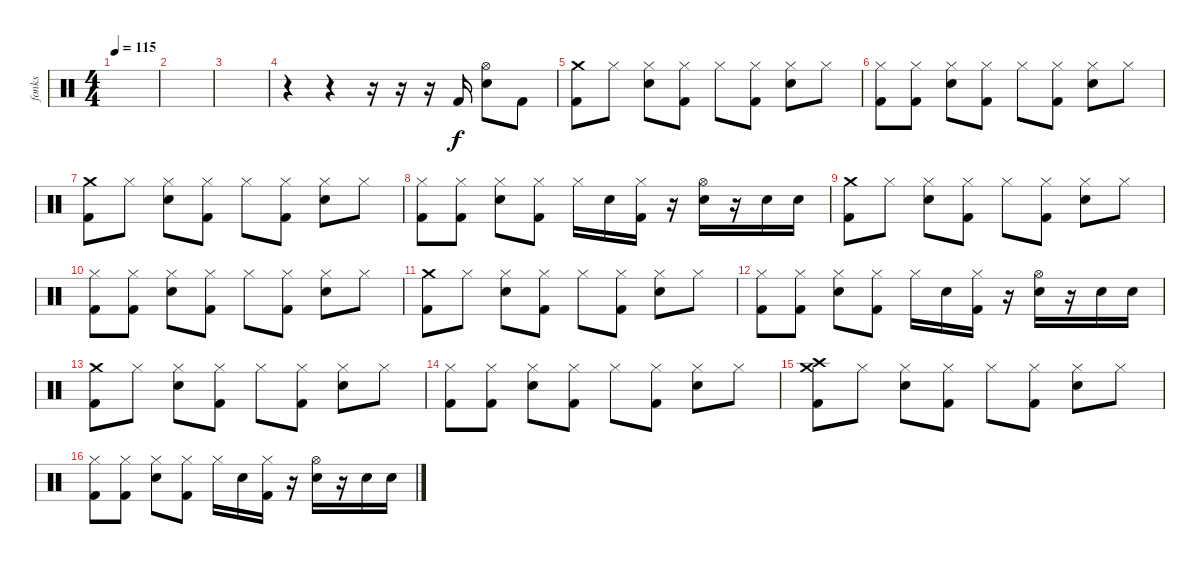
\track ("fonks" "fonks") {instrument percussion}
\staff {score}
\articulation defaults
\ts (4 4)
\tempo 115
\clef neutral
\ks c
|
|
|
r.4 r.4 r.16 r.16 r.16 "Kick (hit) 2".16 ("Hi-Hat (open)" "Snare (hit) 2").8 "Kick (hit) 2".8 |
("Crash medium (hit)" "Kick (hit) 2").8 "Hi-Hat (closed)".8 ("Hi-Hat (closed)" "Snare (hit) 2").8 ("Hi-Hat (closed)" "Kick (hit) 2").8 "Hi-Hat (closed)".8 ("Hi-Hat (closed)" "Kick (hit) 2").8 ("Hi-Hat (closed)" "Snare (hit) 2").8 "Hi-Hat (closed)".8 |
("Hi-Hat (closed)" "Kick (hit) 2").8 ("Hi-Hat (closed)" "Kick (hit) 2").8 ("Hi-Hat (closed)" "Snare (hit) 2").8 ("Hi-Hat (closed)" "Kick (hit) 2").8 "Hi-Hat (closed)".8 ("Hi-Hat (closed)" "Kick (hit) 2").8 ("Hi-Hat (closed)" "Snare (hit) 2").8 "Hi-Hat (closed)".8 |
("Crash medium (hit)" "Kick (hit) 2").8 "Hi-Hat (closed)".8 ("Hi-Hat (closed)" "Snare (hit) 2").8 ("Hi-Hat (closed)" "Kick (hit) 2").8 "Hi-Hat (closed)".8 ("Hi-Hat (closed)" "Kick (hit) 2").8 ("Hi-Hat (closed)" "Snare (hit) 2").8 "Hi-Hat (closed)".8 |
("Hi-Hat (closed)" "Kick (hit) 2").8 ("Hi-Hat (closed)" "Kick (hit) 2").8 ("Hi-Hat (closed)" "Snare (hit) 2").8 ("Hi-Hat (closed)" "Kick (hit) 2").8 "Hi-Hat (closed)".16 "Snare (hit) 2".16 ("Hi-Hat (closed)" "Kick (hit) 2").16 r.16 ("Hi-Hat (open)" "Snare (hit) 2").16 r.16 "Snare (hit) 2".16 "Snare (hit) 2".16 |
("Crash medium (hit)" "Kick (hit) 2").8 "Hi-Hat (closed)".8 ("Hi-Hat (closed)" "Snare (hit) 2").8 ("Hi-Hat (closed)" "Kick (hit) 2").8 "Hi-Hat (closed)".8 ("Hi-Hat (closed)" "Kick (hit) 2").8 ("Hi-Hat (closed)" "Snare (hit) 2").8 "Hi-Hat (closed)".8 |
("Hi-Hat (closed)" "Kick (hit) 2").8 ("Hi-Hat (closed)" "Kick (hit) 2").8 ("Hi-Hat (closed)" "Snare (hit) 2").8 ("Hi-Hat (closed)" "Kick (hit) 2").8 "Hi-Hat (closed)".8 ("Hi-Hat (closed)" "Kick (hit) 2").8 ("Hi-Hat (closed)" "Snare (hit) 2").8 "Hi-Hat (closed)".8 |
("Crash medium (hit)" "Kick (hit) 2").8 "Hi-Hat (closed)".8 ("Hi-Hat (closed)" "Snare (hit) 2").8 ("Hi-Hat (closed)" "Kick (hit) 2").8 "Hi-Hat (closed)".8 ("Hi-Hat (closed)" "Kick (hit) 2").8 ("Hi-Hat (closed)" "Snare (hit) 2").8 "Hi-Hat (closed)".8 |
("Hi-Hat (closed)" "Kick (hit) 2").8 ("Hi-Hat (closed)" "Kick (hit) 2").8 ("Hi-Hat (closed)" "Snare (hit) 2").8 ("Hi-Hat (closed)" "Kick (hit) 2").8 "Hi-Hat (closed)".16 "Snare (hit) 2".16 ("Hi-Hat (closed)" "Kick (hit) 2").16 r.16 ("Hi-Hat (open)" "Snare (hit) 2").16 r.16 "Snare (hit) 2".16 "Snare (hit) 2".16 |
("Crash medium (hit)" "Kick (hit) 2").8 "Hi-Hat (closed)".8 ("Hi-Hat (closed)" "Snare (hit) 2").8 ("Hi-Hat (closed)" "Kick (hit) 2").8 "Hi-Hat (closed)".8 ("Hi-Hat (closed)" "Kick (hit) 2").8 ("Hi-Hat (closed)" "Snare (hit) 2").8 "Hi-Hat (closed)".8 |
("Hi-Hat (closed)" "Kick (hit) 2").8 ("Hi-Hat (closed)" "Kick (hit) 2").8 ("Hi-Hat (closed)" "Snare (hit) 2").8 ("Hi-Hat (closed)" "Kick (hit) 2").8 "Hi-Hat (closed)".8 ("Hi-Hat (closed)" "Kick (hit) 2").8 ("Hi-Hat (closed)" "Snare (hit) 2").8 "Hi-Hat (closed)".8 |
("Crash high (hit)" "Crash medium (hit)" "Kick (hit) 2").8 "Hi-Hat (closed)".8 ("Hi-Hat (closed)" "Snare (hit) 2").8 ("Hi-Hat (closed)" "Kick (hit) 2").8 "Hi-Hat (closed)".8 ("Hi-Hat (closed)" "Kick (hit) 2").8 ("Hi-Hat (closed)" "Snare (hit) 2").8 "Hi-Hat (closed)".8 |
("Hi-Hat (closed)" "Kick (hit) 2").8 ("Hi-Hat (closed)" "Kick (hit) 2").8 ("Hi-Hat (closed)" "Snare (hit) 2").8 ("Hi-Hat (closed)" "Kick (hit) 2").8 "Hi-Hat (closed)".16 "Snare (hit) 2".16 ("Hi-Hat (closed)" "Kick (hit) 2").16 r.16 ("Hi-Hat (open)" "Snare (hit) 2").16 r.16 "Snare (hit) 2".16 "Snare (hit) 2".16
